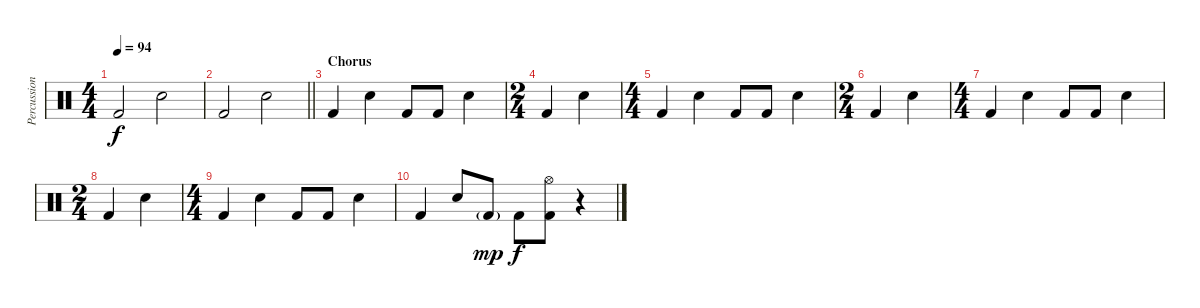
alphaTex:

\track ("Percussion" "Percussion") {instrument percussion}
\staff {score}
\articulation defaults
\ts (4 4)
\tempo 94
\clef neutral
\ks c "Kick (hit) 2".2{dy f} "Snare (hit) 2".2
|
\barLineRight lightlight "Kick (hit) 2".2 "Snare (hit) 2".2
|
\section ("" "Chorus")
"Kick (hit) 2".4 "Snare (hit) 2".4 "Kick (hit) 2".8 "Kick (hit) 2".8 "Snare (hit) 2".4 |
\ts (2 4)
"Kick (hit) 2".4 "Snare (hit) 2".4 |
\ts (4 4)
"Kick (hit) 2".4 "Snare (hit) 2".4 "Kick (hit) 2".8 "Kick (hit) 2".8 "Snare (hit) 2".4 |
\ts (2 4)
"Kick (hit) 2".4 "Snare (hit) 2".4 |
\ts (4 4)
"Kick (hit) 2".4 "Snare (hit) 2".4 "Kick (hit) 2".8 "Kick (hit) 2".8 "Snare (hit) 2".4 |
\ts (2 4)
"Kick (hit) 2".4 "Snare (hit) 2".4 |
\ts (4 4)
"Kick (hit) 2".4 "Snare (hit) 2".4 "Kick (hit) 2".8 "Kick (hit) 2".8 "Snare (hit) 2".4 |
"Kick (hit) 2".4 "Snare (hit) 2".8 "Kick (hit) 2"{g}.8{dy mp} "Kick (hit) 2".8{dy f} ("Hi-Hat (open)" "Kick (hit) 2").8 r.4
